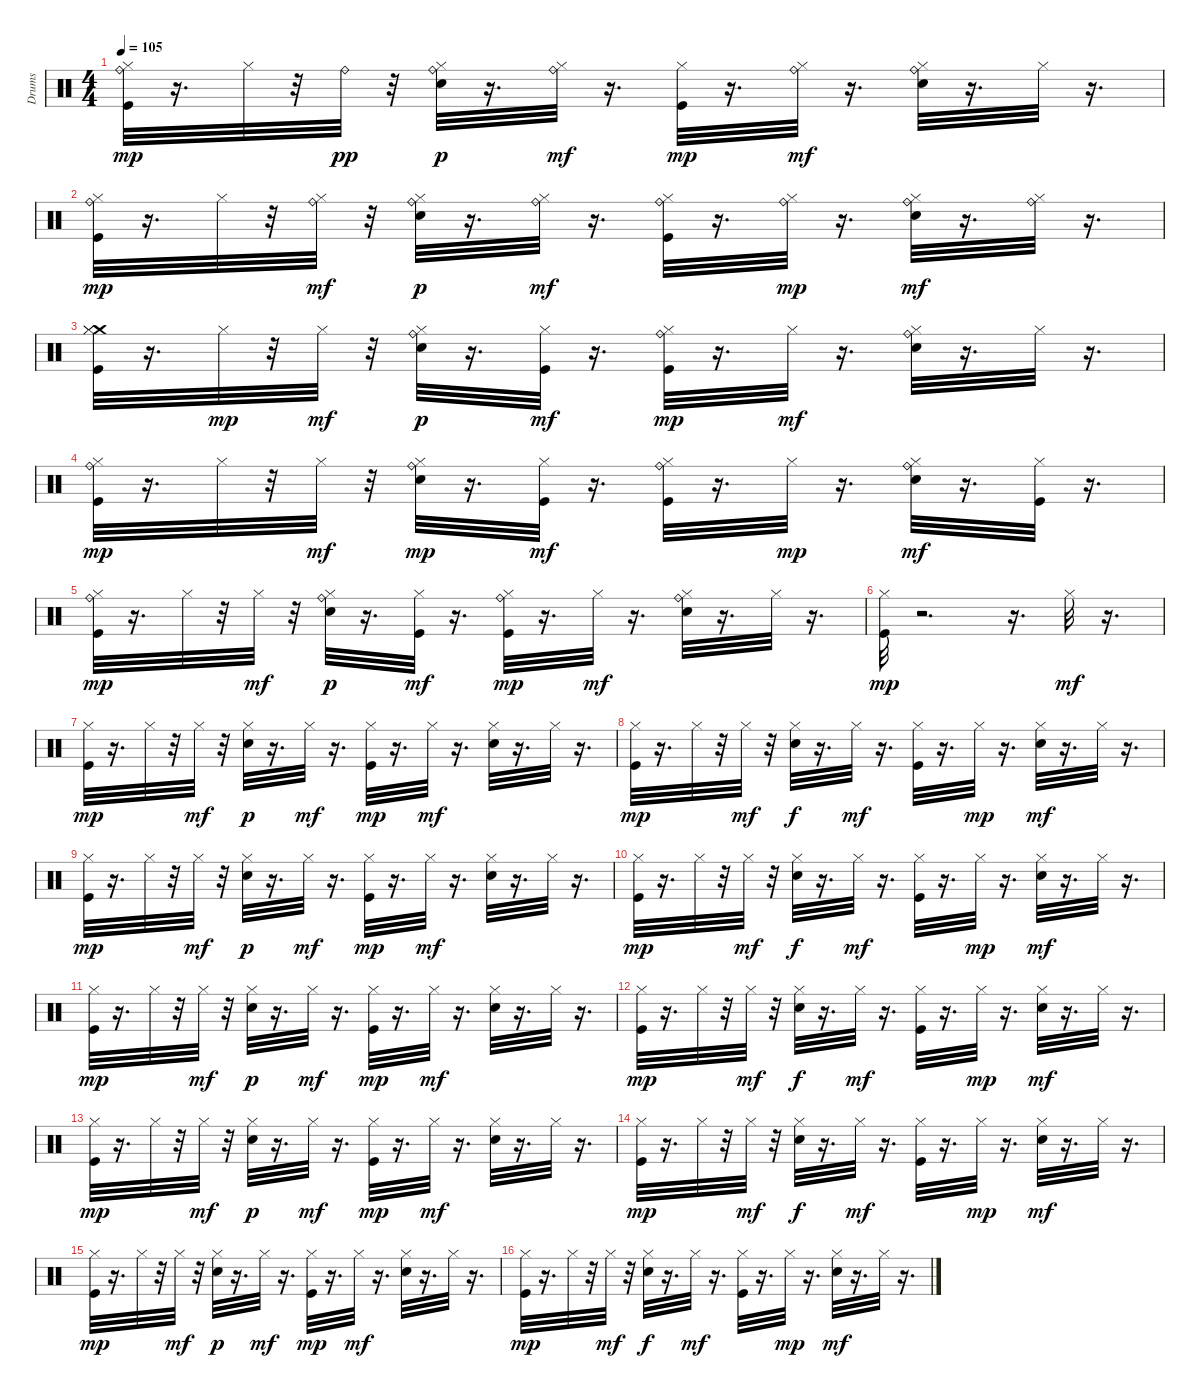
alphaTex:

\track ("Drums" "Drums") {instrument percussion}
\staff {score}
\articulation defaults
\ts (4 4)
\tempo 105
\clef neutral
\ks c
("Ride (bell)" "Kick (hit)" "Hi-Hat (closed)").32{dy mp} r.16{d} "Hi-Hat (closed)".32 r.32 "Ride (bell)".32{dy pp} r.32 ("Snare (hit) 2" "Ride (bell)" "Hi-Hat (closed)").32{dy p} r.16{d} ("Ride (bell)" "Hi-Hat (closed)").32{dy mf} r.16{d} ("Kick (hit)" "Hi-Hat (closed)").32{dy mp} r.16{d} ("Ride (bell)" "Hi-Hat (closed)").32{dy mf} r.16{d} ("Snare (hit) 2" "Ride (bell)" "Hi-Hat (closed)").32 r.16{d} "Hi-Hat (closed)".32 r.16{d} |
("Ride (bell)" "Kick (hit)" "Hi-Hat (closed)").32{dy mp} r.16{d} "Hi-Hat (closed)".32 r.32 ("Ride (bell)" "Hi-Hat (closed)").32{dy mf} r.32 ("Snare (hit) 2" "Ride (bell)" "Hi-Hat (closed)").32{dy p} r.16{d} ("Ride (bell)" "Hi-Hat (closed)").32{dy mf} r.16{d} ("Ride (bell)" "Kick (hit)" "Hi-Hat (closed)").32 r.16{d} ("Ride (bell)" "Hi-Hat (closed)").32{dy mp} r.16{d} ("Snare (hit) 2" "Ride (bell)" "Hi-Hat (closed)").32{dy mf} r.16{d} ("Ride (bell)" "Hi-Hat (closed)").32 r.16{d} |
("Crash medium (hit)" "Kick (hit)" "Hi-Hat (closed)" "Hi-Hat (closed)").32 r.16{d} "Hi-Hat (closed)".32{dy mp} r.32 "Hi-Hat (closed)".32{dy mf} r.32 ("Snare (hit) 2" "Ride (bell)" "Hi-Hat (closed)").32{dy p} r.16{d} ("Kick (hit)" "Hi-Hat (closed)").32{dy mf} r.16{d} ("Ride (bell)" "Kick (hit)" "Hi-Hat (closed)").32{dy mp} r.16{d} "Hi-Hat (closed)".32{dy mf} r.16{d} ("Snare (hit) 2" "Ride (bell)" "Hi-Hat (closed)").32 r.16{d} "Hi-Hat (closed)".32 r.16{d} |
("Ride (bell)" "Kick (hit)" "Hi-Hat (closed)").32{dy mp} r.16{d} "Hi-Hat (closed)".32 r.32 "Hi-Hat (closed)".32{dy mf} r.32 ("Snare (hit) 2" "Ride (bell)" "Hi-Hat (closed)").32{dy mp} r.16{d} ("Kick (hit)" "Hi-Hat (closed)").32{dy mf} r.16{d} ("Ride (bell)" "Kick (hit)" "Hi-Hat (closed)").32 r.16{d} "Hi-Hat (closed)".32{dy mp} r.16{d} ("Snare (hit) 2" "Ride (bell)" "Hi-Hat (closed)").32{dy mf} r.16{d} ("Kick (hit)" "Hi-Hat (closed)").32 r.16{d} |
("Ride (bell)" "Kick (hit)" "Hi-Hat (closed)").32{dy mp} r.16{d} "Hi-Hat (closed)".32 r.32 "Hi-Hat (closed)".32{dy mf} r.32 ("Snare (hit) 2" "Ride (bell)" "Hi-Hat (closed)").32{dy p} r.16{d} ("Kick (hit)" "Hi-Hat (closed)").32{dy mf} r.16{d} ("Ride (bell)" "Kick (hit)" "Hi-Hat (closed)").32{dy mp} r.16{d} "Hi-Hat (closed)".32{dy mf} r.16{d} ("Snare (hit) 2" "Ride (bell)" "Hi-Hat (closed)").32 r.16{d} "Hi-Hat (closed)".32 r.16{d} |
("Kick (hit)" "Hi-Hat (closed)").32{dy mp} r.2{d} r.16{d} "Hi-Hat (closed)".32{dy mf} r.16{d} |
("Kick (hit)" "Hi-Hat (closed)").32{dy mp} r.16{d} "Hi-Hat (closed)".32 r.32 "Hi-Hat (closed)".32{dy mf} r.32 ("Snare (hit) 2" "Hi-Hat (closed)").32{dy p} r.16{d} "Hi-Hat (closed)".32{dy mf} r.16{d} ("Kick (hit)" "Hi-Hat (closed)").32{dy mp} r.16{d} "Hi-Hat (closed)".32{dy mf} r.16{d} ("Snare (hit) 2" "Hi-Hat (closed)").32 r.16{d} "Hi-Hat (closed)".32 r.16{d} |
("Kick (hit)" "Hi-Hat (closed)").32{dy mp} r.16{d} "Hi-Hat (closed)".32 r.32 "Hi-Hat (closed)".32{dy mf} r.32 ("Snare (hit) 2" "Hi-Hat (closed)").32{dy f} r.16{d} "Hi-Hat (closed)".32{dy mf} r.16{d} ("Kick (hit)" "Hi-Hat (closed)").32 r.16{d} "Hi-Hat (closed)".32{dy mp} r.16{d} ("Snare (hit) 2" "Hi-Hat (closed)").32{dy mf} r.16{d} "Hi-Hat (closed)".32 r.16{d} |
("Kick (hit)" "Hi-Hat (closed)").32{dy mp} r.16{d} "Hi-Hat (closed)".32 r.32 "Hi-Hat (closed)".32{dy mf} r.32 ("Snare (hit) 2" "Hi-Hat (closed)").32{dy p} r.16{d} "Hi-Hat (closed)".32{dy mf} r.16{d} ("Kick (hit)" "Hi-Hat (closed)").32{dy mp} r.16{d} "Hi-Hat (closed)".32{dy mf} r.16{d} ("Snare (hit) 2" "Hi-Hat (closed)").32 r.16{d} "Hi-Hat (closed)".32 r.16{d} |
("Kick (hit)" "Hi-Hat (closed)").32{dy mp} r.16{d} "Hi-Hat (closed)".32 r.32 "Hi-Hat (closed)".32{dy mf} r.32 ("Snare (hit) 2" "Hi-Hat (closed)").32{dy f} r.16{d} "Hi-Hat (closed)".32{dy mf} r.16{d} ("Kick (hit)" "Hi-Hat (closed)").32 r.16{d} "Hi-Hat (closed)".32{dy mp} r.16{d} ("Snare (hit) 2" "Hi-Hat (closed)").32{dy mf} r.16{d} "Hi-Hat (closed)".32 r.16{d} |
("Kick (hit)" "Hi-Hat (closed)").32{dy mp} r.16{d} "Hi-Hat (closed)".32 r.32 "Hi-Hat (closed)".32{dy mf} r.32 ("Snare (hit) 2" "Hi-Hat (closed)").32{dy p} r.16{d} "Hi-Hat (closed)".32{dy mf} r.16{d} ("Kick (hit)" "Hi-Hat (closed)").32{dy mp} r.16{d} "Hi-Hat (closed)".32{dy mf} r.16{d} ("Snare (hit) 2" "Hi-Hat (closed)").32 r.16{d} "Hi-Hat (closed)".32 r.16{d} |
("Kick (hit)" "Hi-Hat (closed)").32{dy mp} r.16{d} "Hi-Hat (closed)".32 r.32 "Hi-Hat (closed)".32{dy mf} r.32 ("Snare (hit) 2" "Hi-Hat (closed)").32{dy f} r.16{d} "Hi-Hat (closed)".32{dy mf} r.16{d} ("Kick (hit)" "Hi-Hat (closed)").32 r.16{d} "Hi-Hat (closed)".32{dy mp} r.16{d} ("Snare (hit) 2" "Hi-Hat (closed)").32{dy mf} r.16{d} "Hi-Hat (closed)".32 r.16{d} |
("Kick (hit)" "Hi-Hat (closed)").32{dy mp} r.16{d} "Hi-Hat (closed)".32 r.32 "Hi-Hat (closed)".32{dy mf} r.32 ("Snare (hit) 2" "Hi-Hat (closed)").32{dy p} r.16{d} "Hi-Hat (closed)".32{dy mf} r.16{d} ("Kick (hit)" "Hi-Hat (closed)").32{dy mp} r.16{d} "Hi-Hat (closed)".32{dy mf} r.16{d} ("Snare (hit) 2" "Hi-Hat (closed)").32 r.16{d} "Hi-Hat (closed)".32 r.16{d} |
("Kick (hit)" "Hi-Hat (closed)").32{dy mp} r.16{d} "Hi-Hat (closed)".32 r.32 "Hi-Hat (closed)".32{dy mf} r.32 ("Snare (hit) 2" "Hi-Hat (closed)").32{dy f} r.16{d} "Hi-Hat (closed)".32{dy mf} r.16{d} ("Kick (hit)" "Hi-Hat (closed)").32 r.16{d} "Hi-Hat (closed)".32{dy mp} r.16{d} ("Snare (hit) 2" "Hi-Hat (closed)").32{dy mf} r.16{d} "Hi-Hat (closed)".32 r.16{d} |
("Kick (hit)" "Hi-Hat (closed)").32{dy mp} r.16{d} "Hi-Hat (closed)".32 r.32 "Hi-Hat (closed)".32{dy mf} r.32 ("Snare (hit) 2" "Hi-Hat (closed)").32{dy p} r.16{d} "Hi-Hat (closed)".32{dy mf} r.16{d} ("Kick (hit)" "Hi-Hat (closed)").32{dy mp} r.16{d} "Hi-Hat (closed)".32{dy mf} r.16{d} ("Snare (hit) 2" "Hi-Hat (closed)").32 r.16{d} "Hi-Hat (closed)".32 r.16{d} |
("Kick (hit)" "Hi-Hat (closed)").32{dy mp} r.16{d} "Hi-Hat (closed)".32 r.32 "Hi-Hat (closed)".32{dy mf} r.32 ("Snare (hit) 2" "Hi-Hat (closed)").32{dy f} r.16{d} "Hi-Hat (closed)".32{dy mf} r.16{d} ("Kick (hit)" "Hi-Hat (closed)").32 r.16{d} "Hi-Hat (closed)".32{dy mp} r.16{d} ("Snare (hit) 2" "Hi-Hat (closed)").32{dy mf} r.16{d} "Hi-Hat (closed)".32 r.16{d}
